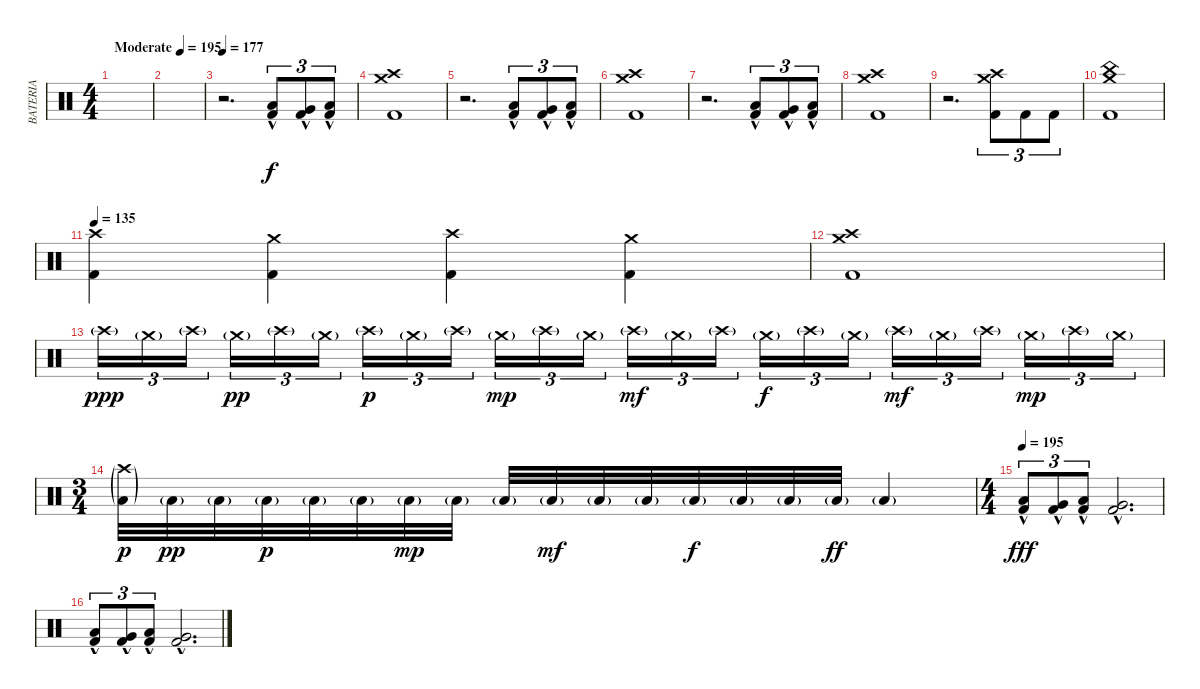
\track ("BATERIA" "BATERIA") {instrument percussion}
\staff
\articulation defaults
\ts (4 4)
\tempo (195 "Moderate")
\clef neutral
\ks c
|
|
\tempo 177
r.2{d} ("Kick (hit) 2" "Low Floor Tom (hit)"{hac}).8{tu (3 2)} ("Kick (hit) 2" "Very Low Tom (hit)"{hac}).8{tu (3 2)} ("Kick (hit) 2" "Low Floor Tom (hit)"{hac}).8{tu (3 2)} |
("Kick (hit) 2" "Crash medium (hit)" "Crash high (hit)").1 |
r.2{d} ("Kick (hit) 2" "Low Floor Tom (hit)"{hac}).8{tu (3 2)} ("Kick (hit) 2" "Very Low Tom (hit)"{hac}).8{tu (3 2)} ("Kick (hit) 2" "Low Floor Tom (hit)"{hac}).8{tu (3 2)} |
("Kick (hit) 2" "Crash medium (hit)" "Crash high (hit)").1 |
r.2{d} ("Kick (hit) 2" "Low Floor Tom (hit)"{hac}).8{tu (3 2)} ("Kick (hit) 2" "Very Low Tom (hit)"{hac}).8{tu (3 2)} ("Kick (hit) 2" "Low Floor Tom (hit)"{hac}).8{tu (3 2)} |
("Kick (hit) 2" "Crash medium (hit)" "Crash high (hit)").1 |
r.2{d} ("Kick (hit) 2" "Crash medium (hit)" "Crash high (hit)").8{tu (3 2)} "Kick (hit) 2".8{tu (3 2)} "Kick (hit) 2".8{tu (3 2)} |
("Kick (hit) 2" "China (hit)" "Crash medium (hit)").1 |
\tempo 135
("Kick (hit) 2" "Crash high (hit)").4 ("Kick (hit) 2" "Crash medium (hit)").4 ("Kick (hit) 2" "Crash high (hit)").4 ("Kick (hit) 2" "Crash medium (hit)").4 |
("Kick (hit) 2" "Crash medium (hit)" "Crash high (hit)").1 |
"Crash high (hit)"{g}.16{tu (3 2) dy ppp} "Crash medium (hit)"{g}.16{tu (3 2)} "Crash high (hit)"{g}.16{tu (3 2) beam splitsecondary} "Crash medium (hit)"{g}.16{tu (3 2) dy pp} "Crash high (hit)"{g}.16{tu (3 2)} "Crash medium (hit)"{g}.16{tu (3 2)} "Crash high (hit)"{g}.16{tu (3 2) dy p} "Crash medium (hit)"{g}.16{tu (3 2)} "Crash high (hit)"{g}.16{tu (3 2) beam splitsecondary} "Crash medium (hit)"{g}.16{tu (3 2) dy mp} "Crash high (hit)"{g}.16{tu (3 2)} "Crash medium (hit)"{g}.16{tu (3 2)} "Crash high (hit)"{g}.16{tu (3 2) dy mf} "Crash medium (hit)"{g}.16{tu (3 2)} "Crash high (hit)"{g}.16{tu (3 2) beam splitsecondary} "Crash medium (hit)"{g}.16{tu (3 2) dy f} "Crash high (hit)"{g}.16{tu (3 2)} "Crash medium (hit)"{g}.16{tu (3 2)} "Crash high (hit)"{g}.16{tu (3 2) dy mf} "Crash medium (hit)"{g}.16{tu (3 2)} "Crash high (hit)"{g}.16{tu (3 2) beam splitsecondary} "Crash medium (hit)"{g}.16{tu (3 2) dy mp} "Crash high (hit)"{g}.16{tu (3 2)} "Crash medium (hit)"{g}.16{tu (3 2)} |
\ts (3 4)
("Low Floor Tom (hit)"{g} "Crash high (hit)"{g}).32{dy p} "Low Floor Tom (hit)"{g}.32{dy pp} "Low Floor Tom (hit)"{g}.32 "Low Floor Tom (hit)"{g}.32{dy p} "Low Floor Tom (hit)"{g}.32 "Low Floor Tom (hit)"{g}.32 "Low Floor Tom (hit)"{g}.32{dy mp} "Low Floor Tom (hit)"{g}.32 "Low Floor Tom (hit)"{g}.32 "Low Floor Tom (hit)"{g}.32{dy mf} "Low Floor Tom (hit)"{g}.32 "Low Floor Tom (hit)"{g}.32 "Low Floor Tom (hit)"{g}.32{dy f} "Low Floor Tom (hit)"{g}.32 "Low Floor Tom (hit)"{g}.32 "Low Floor Tom (hit)"{g}.32{dy ff} "Low Floor Tom (hit)"{g}.4 |
\ts (4 4)
\tempo 195
("Kick (hit) 2" "Low Floor Tom (hit)"{hac}).8{tu (3 2) dy fff} ("Kick (hit) 2" "Very Low Tom (hit)"{hac}).8{tu (3 2)} ("Kick (hit) 2" "Low Floor Tom (hit)"{hac}).8{tu (3 2)} ("Kick (hit) 2" "Very Low Tom (hit)"{hac}).2{d} |
("Kick (hit) 2" "Low Floor Tom (hit)"{hac}).8{tu (3 2)} ("Kick (hit) 2" "Very Low Tom (hit)"{hac}).8{tu (3 2)} ("Kick (hit) 2" "Low Floor Tom (hit)"{hac}).8{tu (3 2)} ("Kick (hit) 2" "Very Low Tom (hit)"{hac}).2{d}
